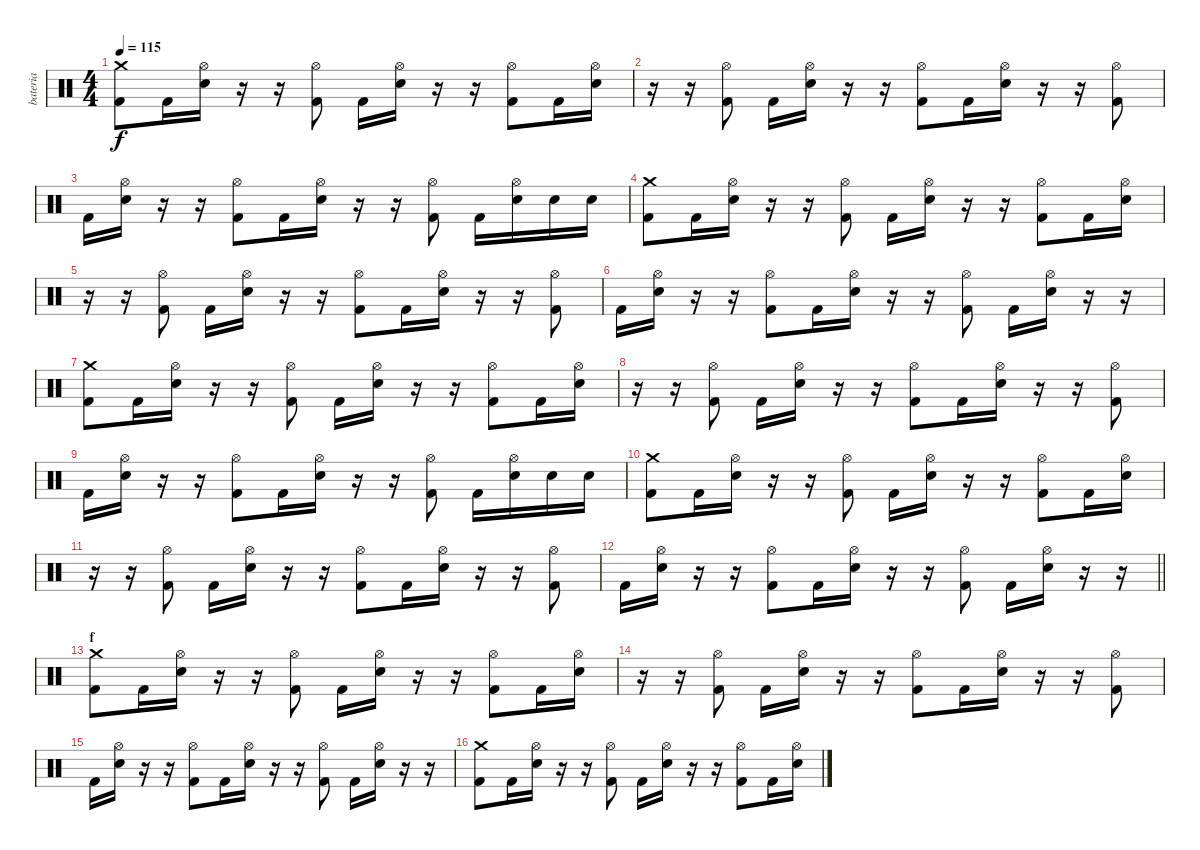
\track ("bateria" "bateria") {instrument percussion}
\staff {score}
\articulation defaults
\ts (4 4)
\tempo 115
\clef neutral
\ks c
("Kick (hit) 2" "Crash medium (hit)").8{dy f} "Kick (hit) 2".16 ("Electric Snare (hit)" "Hi-Hat (open)").16 r.16 r.16 ("Kick (hit) 2" "Hi-Hat (open)").8 "Kick (hit) 2".16 ("Hi-Hat (open)" "Electric Snare (hit)").16 r.16 r.16 ("Kick (hit) 2" "Hi-Hat (open)").8 "Kick (hit) 2".16 ("Hi-Hat (open)" "Electric Snare (hit)").16 |
r.16 r.16 ("Kick (hit) 2" "Hi-Hat (open)").8 "Kick (hit) 2".16 ("Hi-Hat (open)" "Electric Snare (hit)").16 r.16 r.16 ("Kick (hit) 2" "Hi-Hat (open)").8 "Kick (hit) 2".16 ("Hi-Hat (open)" "Electric Snare (hit)").16 r.16 r.16 ("Kick (hit) 2" "Hi-Hat (open)").8 |
"Kick (hit) 2".16 ("Electric Snare (hit)" "Hi-Hat (open)").16 r.16 r.16 ("Kick (hit) 2" "Hi-Hat (open)").8 "Kick (hit) 2".16 ("Hi-Hat (open)" "Electric Snare (hit)").16 r.16 r.16 ("Kick (hit) 2" "Hi-Hat (open)").8 "Kick (hit) 2".16 ("Hi-Hat (open)" "Electric Snare (hit)").16 "Electric Snare (hit)".16 "Electric Snare (hit)".16 |
("Kick (hit) 2" "Crash medium (hit)").8 "Kick (hit) 2".16 ("Electric Snare (hit)" "Hi-Hat (open)").16 r.16 r.16 ("Kick (hit) 2" "Hi-Hat (open)").8 "Kick (hit) 2".16 ("Hi-Hat (open)" "Electric Snare (hit)").16 r.16 r.16 ("Kick (hit) 2" "Hi-Hat (open)").8 "Kick (hit) 2".16 ("Hi-Hat (open)" "Electric Snare (hit)").16 |
r.16 r.16 ("Kick (hit) 2" "Hi-Hat (open)").8 "Kick (hit) 2".16 ("Hi-Hat (open)" "Electric Snare (hit)").16 r.16 r.16 ("Kick (hit) 2" "Hi-Hat (open)").8 "Kick (hit) 2".16 ("Hi-Hat (open)" "Electric Snare (hit)").16 r.16 r.16 ("Kick (hit) 2" "Hi-Hat (open)").8 |
"Kick (hit) 2".16 ("Electric Snare (hit)" "Hi-Hat (open)").16 r.16 r.16 ("Kick (hit) 2" "Hi-Hat (open)").8 "Kick (hit) 2".16 ("Hi-Hat (open)" "Electric Snare (hit)").16 r.16 r.16 ("Kick (hit) 2" "Hi-Hat (open)").8 "Kick (hit) 2".16 ("Hi-Hat (open)" "Electric Snare (hit)").16 r.16 r.16 |
("Kick (hit) 2" "Crash medium (hit)").8 "Kick (hit) 2".16 ("Electric Snare (hit)" "Hi-Hat (open)").16 r.16 r.16 ("Kick (hit) 2" "Hi-Hat (open)").8 "Kick (hit) 2".16 ("Hi-Hat (open)" "Electric Snare (hit)").16 r.16 r.16 ("Kick (hit) 2" "Hi-Hat (open)").8 "Kick (hit) 2".16 ("Hi-Hat (open)" "Electric Snare (hit)").16 |
r.16 r.16 ("Kick (hit) 2" "Hi-Hat (open)").8 "Kick (hit) 2".16 ("Hi-Hat (open)" "Electric Snare (hit)").16 r.16 r.16 ("Kick (hit) 2" "Hi-Hat (open)").8 "Kick (hit) 2".16 ("Hi-Hat (open)" "Electric Snare (hit)").16 r.16 r.16 ("Kick (hit) 2" "Hi-Hat (open)").8 |
"Kick (hit) 2".16 ("Electric Snare (hit)" "Hi-Hat (open)").16 r.16 r.16 ("Kick (hit) 2" "Hi-Hat (open)").8 "Kick (hit) 2".16 ("Hi-Hat (open)" "Electric Snare (hit)").16 r.16 r.16 ("Kick (hit) 2" "Hi-Hat (open)").8 "Kick (hit) 2".16 ("Hi-Hat (open)" "Electric Snare (hit)").16 "Electric Snare (hit)".16 "Electric Snare (hit)".16 |
("Kick (hit) 2" "Crash medium (hit)").8 "Kick (hit) 2".16 ("Electric Snare (hit)" "Hi-Hat (open)").16 r.16 r.16 ("Kick (hit) 2" "Hi-Hat (open)").8 "Kick (hit) 2".16 ("Hi-Hat (open)" "Electric Snare (hit)").16 r.16 r.16 ("Kick (hit) 2" "Hi-Hat (open)").8 "Kick (hit) 2".16 ("Hi-Hat (open)" "Electric Snare (hit)").16 |
r.16 r.16 ("Kick (hit) 2" "Hi-Hat (open)").8 "Kick (hit) 2".16 ("Hi-Hat (open)" "Electric Snare (hit)").16 r.16 r.16 ("Kick (hit) 2" "Hi-Hat (open)").8 "Kick (hit) 2".16 ("Hi-Hat (open)" "Electric Snare (hit)").16 r.16 r.16 ("Kick (hit) 2" "Hi-Hat (open)").8 |
\barLineRight lightlight "Kick (hit) 2".16
("Electric Snare (hit)" "Hi-Hat (open)").16 r.16 r.16 ("Kick (hit) 2" "Hi-Hat (open)").8 "Kick (hit) 2".16 ("Hi-Hat (open)" "Electric Snare (hit)").16 r.16 r.16 ("Kick (hit) 2" "Hi-Hat (open)").8 "Kick (hit) 2".16 ("Hi-Hat (open)" "Electric Snare (hit)").16 r.16 r.16 |
\section ("" "f")
("Kick (hit) 2" "Crash medium (hit)").8 "Kick (hit) 2".16 ("Electric Snare (hit)" "Hi-Hat (open)").16 r.16 r.16 ("Kick (hit) 2" "Hi-Hat (open)").8 "Kick (hit) 2".16 ("Hi-Hat (open)" "Electric Snare (hit)").16 r.16 r.16 ("Kick (hit) 2" "Hi-Hat (open)").8 "Kick (hit) 2".16 ("Hi-Hat (open)" "Electric Snare (hit)").16 |
r.16 r.16 ("Kick (hit) 2" "Hi-Hat (open)").8 "Kick (hit) 2".16 ("Hi-Hat (open)" "Electric Snare (hit)").16 r.16 r.16 ("Kick (hit) 2" "Hi-Hat (open)").8 "Kick (hit) 2".16 ("Hi-Hat (open)" "Electric Snare (hit)").16 r.16 r.16 ("Kick (hit) 2" "Hi-Hat (open)").8 |
"Kick (hit) 2".16 ("Electric Snare (hit)" "Hi-Hat (open)").16 r.16 r.16 ("Kick (hit) 2" "Hi-Hat (open)").8 "Kick (hit) 2".16 ("Hi-Hat (open)" "Electric Snare (hit)").16 r.16 r.16 ("Kick (hit) 2" "Hi-Hat (open)").8 "Kick (hit) 2".16 ("Hi-Hat (open)" "Electric Snare (hit)").16 r.16 r.16 |
("Kick (hit) 2" "Crash medium (hit)").8 "Kick (hit) 2".16 ("Electric Snare (hit)" "Hi-Hat (open)").16 r.16 r.16 ("Kick (hit) 2" "Hi-Hat (open)").8 "Kick (hit) 2".16 ("Hi-Hat (open)" "Electric Snare (hit)").16 r.16 r.16 ("Kick (hit) 2" "Hi-Hat (open)").8 "Kick (hit) 2".16 ("Hi-Hat (open)" "Electric Snare (hit)").16
